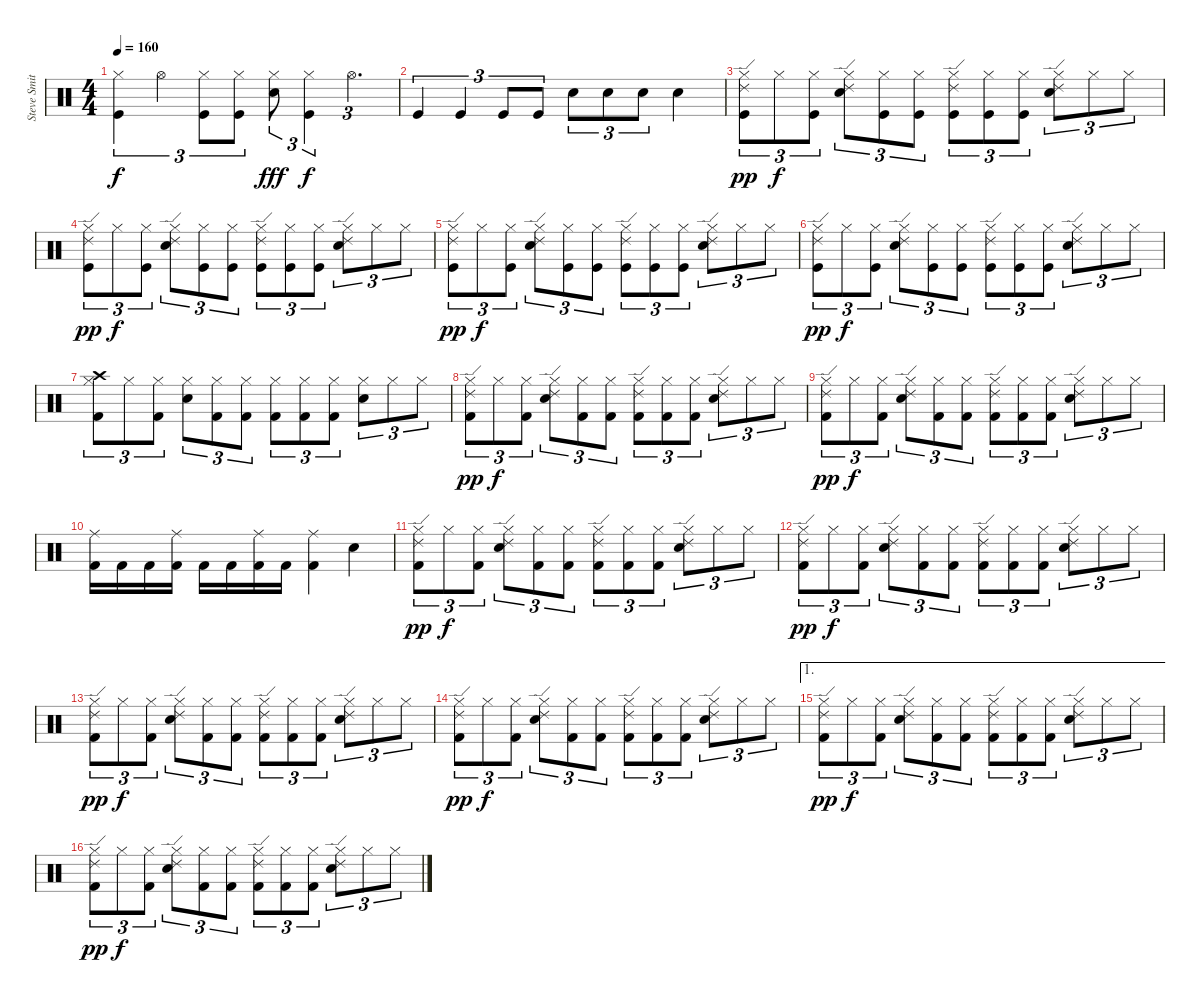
\track ("Steve Smith" "Steve Smit") {instrument percussion}
\staff {score}
\articulation defaults
\ts (4 4)
\tempo 160
\clef neutral
\ks c
("Hi-Hat (closed)" "Kick (hit)").4{tu (3 2) dy f} "Hi-Hat (open)".4{tu (3 2)} ("Hi-Hat (closed)" "Kick (hit)").8{tu (3 2)} ("Hi-Hat (closed)" "Kick (hit)").8{tu (3 2)} ("Hi-Hat (closed)" "Snare (hit) 2").8{tu (3 2) dy fff} ("Hi-Hat (closed)" "Kick (hit)").4{tu (3 2) dy f} "Hi-Hat (open)".4{d tu (3 2)} |
"Kick (hit)".4{tu (3 2)} "Kick (hit)".4{tu (3 2)} "Kick (hit)".8{tu (3 2)} "Kick (hit)".8{tu (3 2)} "Snare (hit) 2".8{tu (3 2)} "Snare (hit) 2".8{tu (3 2)} "Snare (hit) 2".8{tu (3 2)} "Snare (hit) 2".4 |
("Hi-Hat (closed)" "Ride (edge) 2" "Kick (hit)").8{tu (3 2) dy pp} "Hi-Hat (closed)".8{tu (3 2) dy f} ("Hi-Hat (closed)" "Kick (hit)").8{tu (3 2)} ("Hi-Hat (closed)" "Ride (edge) 2" "Snare (hit) 2").8{tu (3 2)} ("Hi-Hat (closed)" "Kick (hit)").8{tu (3 2)} ("Hi-Hat (closed)" "Kick (hit)").8{tu (3 2)} ("Hi-Hat (closed)" "Ride (edge) 2" "Kick (hit)").8{tu (3 2)} ("Hi-Hat (closed)" "Kick (hit)").8{tu (3 2)} ("Hi-Hat (closed)" "Kick (hit)").8{tu (3 2)} ("Hi-Hat (closed)" "Ride (edge) 2" "Snare (hit) 2").8{tu (3 2)} "Hi-Hat (closed)".8{tu (3 2)} "Hi-Hat (closed)".8{tu (3 2)} |
("Hi-Hat (closed)" "Ride (edge) 2" "Kick (hit)").8{tu (3 2) dy pp} "Hi-Hat (closed)".8{tu (3 2) dy f} ("Hi-Hat (closed)" "Kick (hit)").8{tu (3 2)} ("Hi-Hat (closed)" "Ride (edge) 2" "Snare (hit) 2").8{tu (3 2)} ("Hi-Hat (closed)" "Kick (hit)").8{tu (3 2)} ("Hi-Hat (closed)" "Kick (hit)").8{tu (3 2)} ("Hi-Hat (closed)" "Ride (edge) 2" "Kick (hit)").8{tu (3 2)} ("Hi-Hat (closed)" "Kick (hit)").8{tu (3 2)} ("Hi-Hat (closed)" "Kick (hit)").8{tu (3 2)} ("Hi-Hat (closed)" "Ride (edge) 2" "Snare (hit) 2").8{tu (3 2)} "Hi-Hat (closed)".8{tu (3 2)} "Hi-Hat (closed)".8{tu (3 2)} |
("Hi-Hat (closed)" "Ride (edge) 2" "Kick (hit)").8{tu (3 2) dy pp} "Hi-Hat (closed)".8{tu (3 2) dy f} ("Hi-Hat (closed)" "Kick (hit)").8{tu (3 2)} ("Hi-Hat (closed)" "Ride (edge) 2" "Snare (hit) 2").8{tu (3 2)} ("Hi-Hat (closed)" "Kick (hit)").8{tu (3 2)} ("Hi-Hat (closed)" "Kick (hit)").8{tu (3 2)} ("Hi-Hat (closed)" "Ride (edge) 2" "Kick (hit)").8{tu (3 2)} ("Hi-Hat (closed)" "Kick (hit)").8{tu (3 2)} ("Hi-Hat (closed)" "Kick (hit)").8{tu (3 2)} ("Hi-Hat (closed)" "Ride (edge) 2" "Snare (hit) 2").8{tu (3 2)} "Hi-Hat (closed)".8{tu (3 2)} "Hi-Hat (closed)".8{tu (3 2)} |
("Hi-Hat (closed)" "Ride (edge) 2" "Kick (hit)").8{tu (3 2) dy pp} "Hi-Hat (closed)".8{tu (3 2) dy f} ("Hi-Hat (closed)" "Kick (hit)").8{tu (3 2)} ("Hi-Hat (closed)" "Ride (edge) 2" "Snare (hit) 2").8{tu (3 2)} ("Hi-Hat (closed)" "Kick (hit)").8{tu (3 2)} ("Hi-Hat (closed)" "Kick (hit)").8{tu (3 2)} ("Hi-Hat (closed)" "Ride (edge) 2" "Kick (hit)").8{tu (3 2)} ("Hi-Hat (closed)" "Kick (hit)").8{tu (3 2)} ("Hi-Hat (closed)" "Kick (hit)").8{tu (3 2)} ("Hi-Hat (closed)" "Ride (edge) 2" "Snare (hit) 2").8{tu (3 2)} "Hi-Hat (closed)".8{tu (3 2)} "Hi-Hat (closed)".8{tu (3 2)} |
("Hi-Hat (closed)" "Crash high (hit)" "Kick (hit) 2").8{tu (3 2)} "Hi-Hat (closed)".8{tu (3 2)} ("Hi-Hat (closed)" "Kick (hit) 2").8{tu (3 2)} ("Hi-Hat (closed)" "Snare (hit) 2").8{tu (3 2)} ("Hi-Hat (closed)" "Kick (hit) 2").8{tu (3 2)} ("Hi-Hat (closed)" "Kick (hit) 2").8{tu (3 2)} ("Hi-Hat (closed)" "Kick (hit) 2").8{tu (3 2)} ("Hi-Hat (closed)" "Kick (hit) 2").8{tu (3 2)} ("Hi-Hat (closed)" "Kick (hit) 2").8{tu (3 2)} ("Hi-Hat (closed)" "Snare (hit) 2").8{tu (3 2)} "Hi-Hat (closed)".8{tu (3 2)} "Hi-Hat (closed)".8{tu (3 2)} |
("Hi-Hat (closed)" "Ride (edge) 2" "Kick (hit) 2").8{tu (3 2) dy pp} "Hi-Hat (closed)".8{tu (3 2) dy f} ("Hi-Hat (closed)" "Kick (hit) 2").8{tu (3 2)} ("Hi-Hat (closed)" "Ride (edge) 2" "Snare (hit) 2").8{tu (3 2)} ("Hi-Hat (closed)" "Kick (hit) 2").8{tu (3 2)} ("Hi-Hat (closed)" "Kick (hit) 2").8{tu (3 2)} ("Hi-Hat (closed)" "Ride (edge) 2" "Kick (hit) 2").8{tu (3 2)} ("Hi-Hat (closed)" "Kick (hit) 2").8{tu (3 2)} ("Hi-Hat (closed)" "Kick (hit) 2").8{tu (3 2)} ("Hi-Hat (closed)" "Ride (edge) 2" "Snare (hit) 2").8{tu (3 2)} "Hi-Hat (closed)".8{tu (3 2)} "Hi-Hat (closed)".8{tu (3 2)} |
("Hi-Hat (closed)" "Ride (edge) 2" "Kick (hit) 2").8{tu (3 2) dy pp} "Hi-Hat (closed)".8{tu (3 2) dy f} ("Hi-Hat (closed)" "Kick (hit) 2").8{tu (3 2)} ("Hi-Hat (closed)" "Ride (edge) 2" "Snare (hit) 2").8{tu (3 2)} ("Hi-Hat (closed)" "Kick (hit) 2").8{tu (3 2)} ("Hi-Hat (closed)" "Kick (hit) 2").8{tu (3 2)} ("Hi-Hat (closed)" "Ride (edge) 2" "Kick (hit) 2").8{tu (3 2)} ("Hi-Hat (closed)" "Kick (hit) 2").8{tu (3 2)} ("Hi-Hat (closed)" "Kick (hit) 2").8{tu (3 2)} ("Hi-Hat (closed)" "Ride (edge) 2" "Snare (hit) 2").8{tu (3 2)} "Hi-Hat (closed)".8{tu (3 2)} "Hi-Hat (closed)".8{tu (3 2)} |
("Ride (middle)" "Kick (hit) 2").16 "Kick (hit) 2".16 "Kick (hit) 2".16 ("Ride (middle)" "Kick (hit) 2").16 "Kick (hit) 2".16 "Kick (hit) 2".16 ("Ride (middle)" "Kick (hit) 2").16 "Kick (hit) 2".16 ("Ride (middle)" "Kick (hit) 2").4 "Snare (hit) 2".4 |
("Hi-Hat (closed)" "Ride (edge) 2" "Kick (hit) 2").8{tu (3 2) dy pp} "Hi-Hat (closed)".8{tu (3 2) dy f} ("Hi-Hat (closed)" "Kick (hit) 2").8{tu (3 2)} ("Hi-Hat (closed)" "Ride (edge) 2" "Snare (hit) 2").8{tu (3 2)} ("Hi-Hat (closed)" "Kick (hit) 2").8{tu (3 2)} ("Hi-Hat (closed)" "Kick (hit) 2").8{tu (3 2)} ("Hi-Hat (closed)" "Ride (edge) 2" "Kick (hit) 2").8{tu (3 2)} ("Hi-Hat (closed)" "Kick (hit) 2").8{tu (3 2)} ("Hi-Hat (closed)" "Kick (hit) 2").8{tu (3 2)} ("Hi-Hat (closed)" "Ride (edge) 2" "Snare (hit) 2").8{tu (3 2)} "Hi-Hat (closed)".8{tu (3 2)} "Hi-Hat (closed)".8{tu (3 2)} |
("Hi-Hat (closed)" "Ride (edge) 2" "Kick (hit) 2").8{tu (3 2) dy pp} "Hi-Hat (closed)".8{tu (3 2) dy f} ("Hi-Hat (closed)" "Kick (hit) 2").8{tu (3 2)} ("Hi-Hat (closed)" "Ride (edge) 2" "Snare (hit) 2").8{tu (3 2)} ("Hi-Hat (closed)" "Kick (hit) 2").8{tu (3 2)} ("Hi-Hat (closed)" "Kick (hit) 2").8{tu (3 2)} ("Hi-Hat (closed)" "Ride (edge) 2" "Kick (hit) 2").8{tu (3 2)} ("Hi-Hat (closed)" "Kick (hit) 2").8{tu (3 2)} ("Hi-Hat (closed)" "Kick (hit) 2").8{tu (3 2)} ("Hi-Hat (closed)" "Ride (edge) 2" "Snare (hit) 2").8{tu (3 2)} "Hi-Hat (closed)".8{tu (3 2)} "Hi-Hat (closed)".8{tu (3 2)} |
("Hi-Hat (closed)" "Ride (edge) 2" "Kick (hit) 2").8{tu (3 2) dy pp} "Hi-Hat (closed)".8{tu (3 2) dy f} ("Hi-Hat (closed)" "Kick (hit) 2").8{tu (3 2)} ("Hi-Hat (closed)" "Ride (edge) 2" "Snare (hit) 2").8{tu (3 2)} ("Hi-Hat (closed)" "Kick (hit) 2").8{tu (3 2)} ("Hi-Hat (closed)" "Kick (hit) 2").8{tu (3 2)} ("Hi-Hat (closed)" "Ride (edge) 2" "Kick (hit) 2").8{tu (3 2)} ("Hi-Hat (closed)" "Kick (hit) 2").8{tu (3 2)} ("Hi-Hat (closed)" "Kick (hit) 2").8{tu (3 2)} ("Hi-Hat (closed)" "Ride (edge) 2" "Snare (hit) 2").8{tu (3 2)} "Hi-Hat (closed)".8{tu (3 2)} "Hi-Hat (closed)".8{tu (3 2)} |
("Hi-Hat (closed)" "Ride (edge) 2" "Kick (hit) 2").8{tu (3 2) dy pp} "Hi-Hat (closed)".8{tu (3 2) dy f} ("Hi-Hat (closed)" "Kick (hit) 2").8{tu (3 2)} ("Hi-Hat (closed)" "Ride (edge) 2" "Snare (hit) 2").8{tu (3 2)} ("Hi-Hat (closed)" "Kick (hit) 2").8{tu (3 2)} ("Hi-Hat (closed)" "Kick (hit) 2").8{tu (3 2)} ("Hi-Hat (closed)" "Ride (edge) 2" "Kick (hit) 2").8{tu (3 2)} ("Hi-Hat (closed)" "Kick (hit) 2").8{tu (3 2)} ("Hi-Hat (closed)" "Kick (hit) 2").8{tu (3 2)} ("Hi-Hat (closed)" "Ride (edge) 2" "Snare (hit) 2").8{tu (3 2)} "Hi-Hat (closed)".8{tu (3 2)} "Hi-Hat (closed)".8{tu (3 2)} |
\ae 1
("Hi-Hat (closed)" "Ride (edge) 2" "Kick (hit) 2").8{tu (3 2) dy pp} "Hi-Hat (closed)".8{tu (3 2) dy f} ("Hi-Hat (closed)" "Kick (hit) 2").8{tu (3 2)} ("Hi-Hat (closed)" "Ride (edge) 2" "Snare (hit) 2").8{tu (3 2)} ("Hi-Hat (closed)" "Kick (hit) 2").8{tu (3 2)} ("Hi-Hat (closed)" "Kick (hit) 2").8{tu (3 2)} ("Hi-Hat (closed)" "Ride (edge) 2" "Kick (hit) 2").8{tu (3 2)} ("Hi-Hat (closed)" "Kick (hit) 2").8{tu (3 2)} ("Hi-Hat (closed)" "Kick (hit) 2").8{tu (3 2)} ("Hi-Hat (closed)" "Ride (edge) 2" "Snare (hit) 2").8{tu (3 2)} "Hi-Hat (closed)".8{tu (3 2)} "Hi-Hat (closed)".8{tu (3 2)} |
("Hi-Hat (closed)" "Ride (edge) 2" "Kick (hit) 2").8{tu (3 2) dy pp} "Hi-Hat (closed)".8{tu (3 2) dy f} ("Hi-Hat (closed)" "Kick (hit) 2").8{tu (3 2)} ("Hi-Hat (closed)" "Ride (edge) 2" "Snare (hit) 2").8{tu (3 2)} ("Hi-Hat (closed)" "Kick (hit) 2").8{tu (3 2)} ("Hi-Hat (closed)" "Kick (hit) 2").8{tu (3 2)} ("Hi-Hat (closed)" "Ride (edge) 2" "Kick (hit) 2").8{tu (3 2)} ("Hi-Hat (closed)" "Kick (hit) 2").8{tu (3 2)} ("Hi-Hat (closed)" "Kick (hit) 2").8{tu (3 2)} ("Hi-Hat (closed)" "Ride (edge) 2" "Snare (hit) 2").8{tu (3 2)} "Hi-Hat (closed)".8{tu (3 2)} "Hi-Hat (closed)".8{tu (3 2)}
